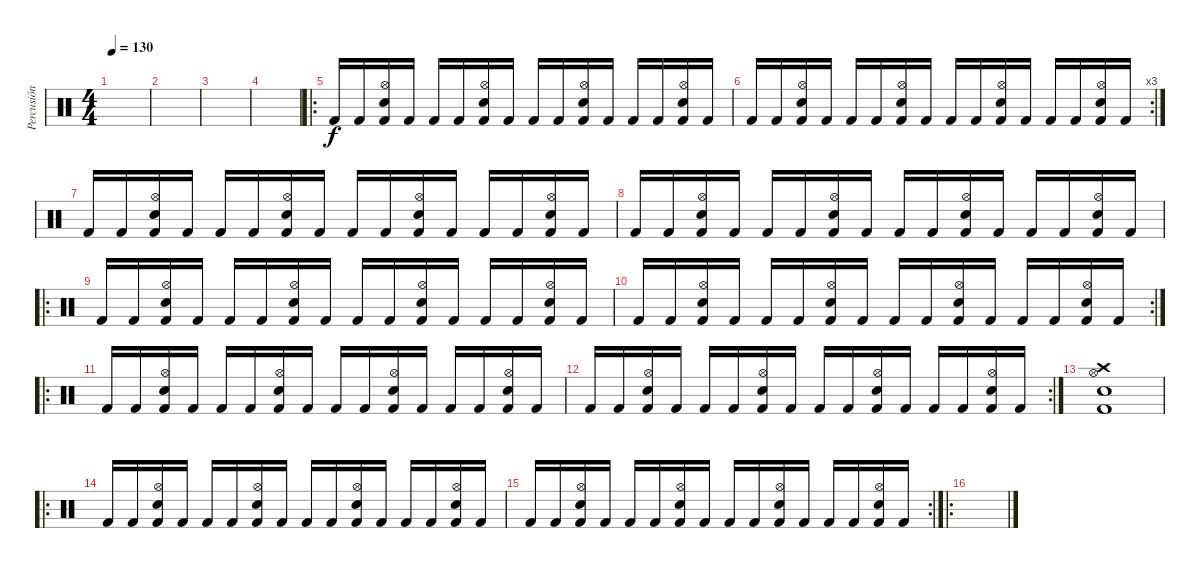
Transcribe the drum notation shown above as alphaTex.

\track ("Percusión" "Percusión") {instrument percussion}
\staff {score}
\articulation defaults
\ts (4 4)
\tempo 130
\clef neutral
\ks c
|
|
|
|
\ro "Kick (hit) 2".16 "Kick (hit) 2".16
("Hi-Hat (open)" "Electric Snare (hit)" "Kick (hit) 2").16 "Kick (hit) 2".16 "Kick (hit) 2".16 "Kick (hit) 2".16 ("Hi-Hat (open)" "Electric Snare (hit)" "Kick (hit) 2").16 "Kick (hit) 2".16 "Kick (hit) 2".16 "Kick (hit) 2".16 ("Electric Snare (hit)" "Kick (hit) 2" "Hi-Hat (open)").16 "Kick (hit) 2".16 "Kick (hit) 2".16 "Kick (hit) 2".16 ("Electric Snare (hit)" "Kick (hit) 2" "Hi-Hat (open)").16 "Kick (hit) 2".16 |
\rc 3 "Kick (hit) 2".16 "Kick (hit) 2".16
("Hi-Hat (open)" "Electric Snare (hit)" "Kick (hit) 2").16 "Kick (hit) 2".16 "Kick (hit) 2".16 "Kick (hit) 2".16 ("Hi-Hat (open)" "Electric Snare (hit)" "Kick (hit) 2").16 "Kick (hit) 2".16 "Kick (hit) 2".16 "Kick (hit) 2".16 ("Electric Snare (hit)" "Kick (hit) 2" "Hi-Hat (open)").16 "Kick (hit) 2".16 "Kick (hit) 2".16 "Kick (hit) 2".16 ("Electric Snare (hit)" "Kick (hit) 2" "Hi-Hat (open)").16 "Kick (hit) 2".16 |
"Kick (hit) 2".16 "Kick (hit) 2".16 ("Hi-Hat (open)" "Electric Snare (hit)" "Kick (hit) 2").16 "Kick (hit) 2".16 "Kick (hit) 2".16 "Kick (hit) 2".16 ("Hi-Hat (open)" "Electric Snare (hit)" "Kick (hit) 2").16 "Kick (hit) 2".16 "Kick (hit) 2".16 "Kick (hit) 2".16 ("Electric Snare (hit)" "Kick (hit) 2" "Hi-Hat (open)").16 "Kick (hit) 2".16 "Kick (hit) 2".16 "Kick (hit) 2".16 ("Electric Snare (hit)" "Kick (hit) 2" "Hi-Hat (open)").16 "Kick (hit) 2".16 |
"Kick (hit) 2".16 "Kick (hit) 2".16 ("Hi-Hat (open)" "Electric Snare (hit)" "Kick (hit) 2").16 "Kick (hit) 2".16 "Kick (hit) 2".16 "Kick (hit) 2".16 ("Hi-Hat (open)" "Electric Snare (hit)" "Kick (hit) 2").16 "Kick (hit) 2".16 "Kick (hit) 2".16 "Kick (hit) 2".16 ("Electric Snare (hit)" "Kick (hit) 2" "Hi-Hat (open)").16 "Kick (hit) 2".16 "Kick (hit) 2".16 "Kick (hit) 2".16 ("Electric Snare (hit)" "Kick (hit) 2" "Hi-Hat (open)").16 "Kick (hit) 2".16 |
\ro "Kick (hit) 2".16 "Kick (hit) 2".16
("Hi-Hat (open)" "Electric Snare (hit)" "Kick (hit) 2").16 "Kick (hit) 2".16 "Kick (hit) 2".16 "Kick (hit) 2".16 ("Hi-Hat (open)" "Electric Snare (hit)" "Kick (hit) 2").16 "Kick (hit) 2".16 "Kick (hit) 2".16 "Kick (hit) 2".16 ("Electric Snare (hit)" "Kick (hit) 2" "Hi-Hat (open)").16 "Kick (hit) 2".16 "Kick (hit) 2".16 "Kick (hit) 2".16 ("Electric Snare (hit)" "Kick (hit) 2" "Hi-Hat (open)").16 "Kick (hit) 2".16 |
\rc 2 "Kick (hit) 2".16 "Kick (hit) 2".16
("Hi-Hat (open)" "Electric Snare (hit)" "Kick (hit) 2").16 "Kick (hit) 2".16 "Kick (hit) 2".16 "Kick (hit) 2".16 ("Hi-Hat (open)" "Electric Snare (hit)" "Kick (hit) 2").16 "Kick (hit) 2".16 "Kick (hit) 2".16 "Kick (hit) 2".16 ("Electric Snare (hit)" "Kick (hit) 2" "Hi-Hat (open)").16 "Kick (hit) 2".16 "Kick (hit) 2".16 "Kick (hit) 2".16 ("Electric Snare (hit)" "Kick (hit) 2" "Hi-Hat (open)").16 "Kick (hit) 2".16 |
\ro "Kick (hit) 2".16 "Kick (hit) 2".16
("Hi-Hat (open)" "Electric Snare (hit)" "Kick (hit) 2").16 "Kick (hit) 2".16 "Kick (hit) 2".16 "Kick (hit) 2".16 ("Hi-Hat (open)" "Electric Snare (hit)" "Kick (hit) 2").16 "Kick (hit) 2".16 "Kick (hit) 2".16 "Kick (hit) 2".16 ("Electric Snare (hit)" "Kick (hit) 2" "Hi-Hat (open)").16 "Kick (hit) 2".16 "Kick (hit) 2".16 "Kick (hit) 2".16 ("Electric Snare (hit)" "Kick (hit) 2" "Hi-Hat (open)").16 "Kick (hit) 2".16 |
\rc 2 "Kick (hit) 2".16 "Kick (hit) 2".16
("Hi-Hat (open)" "Electric Snare (hit)" "Kick (hit) 2").16 "Kick (hit) 2".16 "Kick (hit) 2".16 "Kick (hit) 2".16 ("Hi-Hat (open)" "Electric Snare (hit)" "Kick (hit) 2").16 "Kick (hit) 2".16 "Kick (hit) 2".16 "Kick (hit) 2".16 ("Electric Snare (hit)" "Kick (hit) 2" "Hi-Hat (open)").16 "Kick (hit) 2".16 "Kick (hit) 2".16 "Kick (hit) 2".16 ("Electric Snare (hit)" "Kick (hit) 2" "Hi-Hat (open)").16 "Kick (hit) 2".16 |
("Electric Snare (hit)" "Kick (hit) 2" "Hi-Hat (open)" "Crash high (hit)").1 |
\ro "Kick (hit) 2".16 "Kick (hit) 2".16
("Hi-Hat (open)" "Electric Snare (hit)" "Kick (hit) 2").16 "Kick (hit) 2".16 "Kick (hit) 2".16 "Kick (hit) 2".16 ("Hi-Hat (open)" "Electric Snare (hit)" "Kick (hit) 2").16 "Kick (hit) 2".16 "Kick (hit) 2".16 "Kick (hit) 2".16 ("Electric Snare (hit)" "Kick (hit) 2" "Hi-Hat (open)").16 "Kick (hit) 2".16 "Kick (hit) 2".16 "Kick (hit) 2".16 ("Electric Snare (hit)" "Kick (hit) 2" "Hi-Hat (open)").16 "Kick (hit) 2".16 |
\rc 2 "Kick (hit) 2".16 "Kick (hit) 2".16
("Hi-Hat (open)" "Electric Snare (hit)" "Kick (hit) 2").16 "Kick (hit) 2".16 "Kick (hit) 2".16 "Kick (hit) 2".16 ("Hi-Hat (open)" "Electric Snare (hit)" "Kick (hit) 2").16 "Kick (hit) 2".16 "Kick (hit) 2".16 "Kick (hit) 2".16 ("Electric Snare (hit)" "Kick (hit) 2" "Hi-Hat (open)").16 "Kick (hit) 2".16 "Kick (hit) 2".16 "Kick (hit) 2".16 ("Electric Snare (hit)" "Kick (hit) 2" "Hi-Hat (open)").16 "Kick (hit) 2".16 |
\ro
